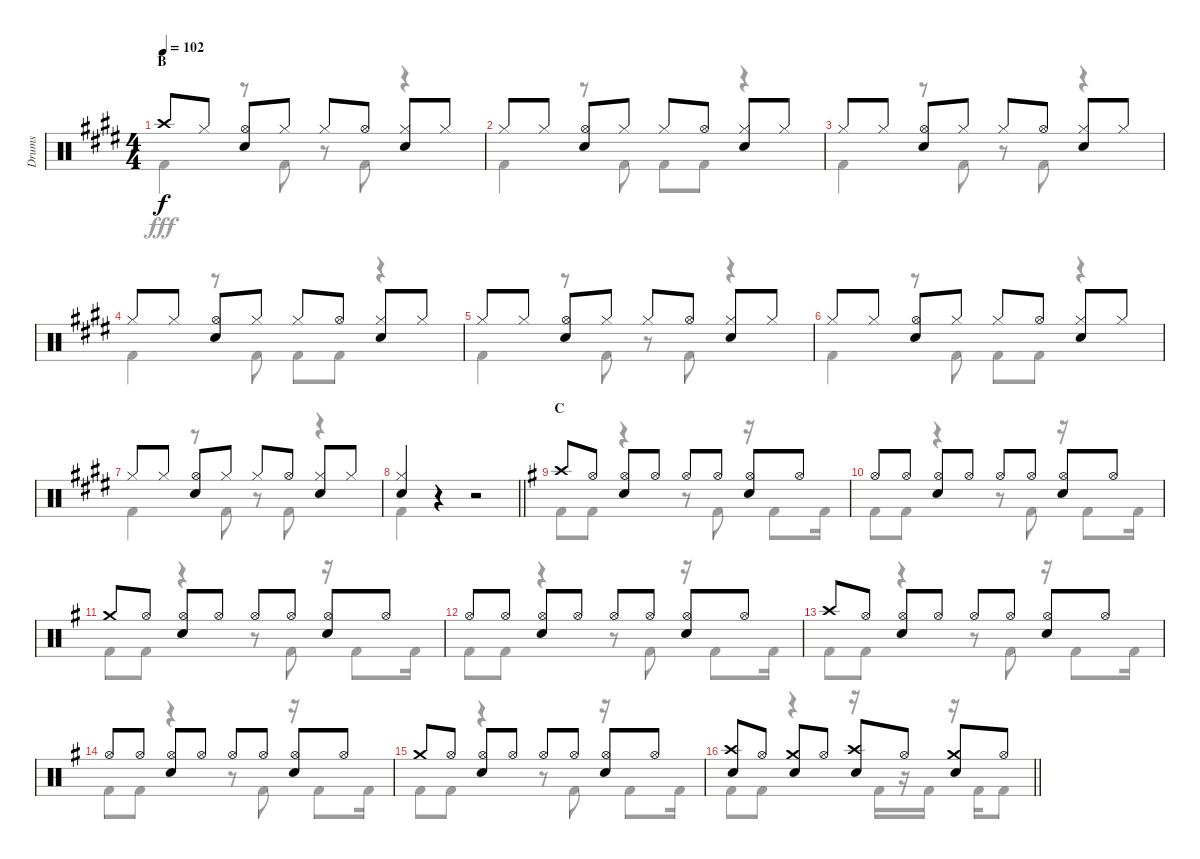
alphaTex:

\track ("Drums" "Drums") {instrument percussion}
\staff {score}
\articulation defaults
\voice
\ts (4 4)
\section ("" "B")
\tempo 102
\clef neutral
\ks e "Crash high (hit)".8{dy f} "Hi-Hat (closed)".8
("Hi-Hat (open)" "Snare (hit) 2").8 "Hi-Hat (closed)".8 "Hi-Hat (closed)".8 "Hi-Hat (open)".8 ("Hi-Hat (closed)" "Snare (hit) 2").8 "Hi-Hat (closed)".8 |
"Hi-Hat (closed)".8 "Hi-Hat (closed)".8 ("Hi-Hat (open)" "Snare (hit) 2").8 "Hi-Hat (closed)".8 "Hi-Hat (closed)".8 "Hi-Hat (open)".8 ("Hi-Hat (closed)" "Snare (hit) 2").8 "Hi-Hat (closed)".8 |
"Hi-Hat (closed)".8 "Hi-Hat (closed)".8 ("Hi-Hat (open)" "Snare (hit) 2").8 "Hi-Hat (closed)".8 "Hi-Hat (closed)".8 "Hi-Hat (open)".8 ("Hi-Hat (closed)" "Snare (hit) 2").8 "Hi-Hat (closed)".8 |
"Hi-Hat (closed)".8 "Hi-Hat (closed)".8 ("Hi-Hat (open)" "Snare (hit) 2").8 "Hi-Hat (closed)".8 "Hi-Hat (closed)".8 "Hi-Hat (open)".8 ("Hi-Hat (closed)" "Snare (hit) 2").8 "Hi-Hat (closed)".8 |
"Hi-Hat (closed)".8 "Hi-Hat (closed)".8 ("Hi-Hat (open)" "Snare (hit) 2").8 "Hi-Hat (closed)".8 "Hi-Hat (closed)".8 "Hi-Hat (open)".8 ("Hi-Hat (closed)" "Snare (hit) 2").8 "Hi-Hat (closed)".8 |
"Hi-Hat (closed)".8 "Hi-Hat (closed)".8 ("Hi-Hat (open)" "Snare (hit) 2").8 "Hi-Hat (closed)".8 "Hi-Hat (closed)".8 "Hi-Hat (open)".8 ("Hi-Hat (closed)" "Snare (hit) 2").8 "Hi-Hat (closed)".8 |
"Hi-Hat (closed)".8 "Hi-Hat (closed)".8 ("Hi-Hat (open)" "Snare (hit) 2").8 "Hi-Hat (closed)".8 "Hi-Hat (closed)".8 "Hi-Hat (open)".8 ("Hi-Hat (closed)" "Snare (hit) 2").8 "Hi-Hat (closed)".8 |
\barLineRight lightlight
("Hi-Hat (closed)" "Snare (hit) 2").4 r.4 r.2 |
\section ("" "C")
\ks g "Crash high (hit)".8 "Hi-Hat (open)".8
("Hi-Hat (open)" "Snare (hit) 2").8 "Hi-Hat (open)".8 "Hi-Hat (open)".8 "Hi-Hat (open)".8 ("Hi-Hat (open)" "Snare (hit) 2").8 "Hi-Hat (open)".8 |
"Hi-Hat (open)".8 "Hi-Hat (open)".8 ("Hi-Hat (open)" "Snare (hit) 2").8 "Hi-Hat (open)".8 "Hi-Hat (open)".8 "Hi-Hat (open)".8 ("Hi-Hat (open)" "Snare (hit) 2").8 "Hi-Hat (open)".8 |
"Crash medium (hit)".8 "Hi-Hat (open)".8 ("Hi-Hat (open)" "Snare (hit) 2").8 "Hi-Hat (open)".8 "Hi-Hat (open)".8 "Hi-Hat (open)".8 ("Hi-Hat (open)" "Snare (hit) 2").8 "Hi-Hat (open)".8 |
"Hi-Hat (open)".8 "Hi-Hat (open)".8 ("Hi-Hat (open)" "Snare (hit) 2").8 "Hi-Hat (open)".8 "Hi-Hat (open)".8 "Hi-Hat (open)".8 ("Hi-Hat (open)" "Snare (hit) 2").8 "Hi-Hat (open)".8 |
"Crash high (hit)".8 "Hi-Hat (open)".8 ("Hi-Hat (open)" "Snare (hit) 2").8 "Hi-Hat (open)".8 "Hi-Hat (open)".8 "Hi-Hat (open)".8 ("Hi-Hat (open)" "Snare (hit) 2").8 "Hi-Hat (open)".8 |
"Hi-Hat (open)".8 "Hi-Hat (open)".8 ("Hi-Hat (open)" "Snare (hit) 2").8 "Hi-Hat (open)".8 "Hi-Hat (open)".8 "Hi-Hat (open)".8 ("Hi-Hat (open)" "Snare (hit) 2").8 "Hi-Hat (open)".8 |
"Crash medium (hit)".8 "Hi-Hat (open)".8 ("Hi-Hat (open)" "Snare (hit) 2").8 "Hi-Hat (open)".8 "Hi-Hat (open)".8 "Hi-Hat (open)".8 ("Hi-Hat (open)" "Snare (hit) 2").8 "Hi-Hat (open)".8 |
\barLineRight lightlight
("Crash high (hit)" "Snare (hit) 2").8 "Hi-Hat (open)".8 ("Crash medium (hit)" "Snare (hit) 2").8 "Hi-Hat (open)".8 ("Crash high (hit)" "Snare (hit) 2").8 "Hi-Hat (open)".8 ("Crash medium (hit)" "Snare (hit) 2").8 "Hi-Hat (open)".8
\voice
\clef neutral
\ottava regular
\simile none
\ks e "Kick (hit) 2".4{dy fff}
r.8 "Kick (hit) 2".8 r.8 "Kick (hit) 2".8 r.4 |
"Kick (hit) 2".4 r.8 "Kick (hit) 2".8 "Kick (hit) 2".8 "Kick (hit) 2".8 r.4 |
"Kick (hit) 2".4 r.8 "Kick (hit) 2".8 r.8 "Kick (hit) 2".8 r.4 |
"Kick (hit) 2".4 r.8 "Kick (hit) 2".8 "Kick (hit) 2".8 "Kick (hit) 2".8 r.4 |
"Kick (hit) 2".4 r.8 "Kick (hit) 2".8 r.8 "Kick (hit) 2".8 r.4 |
"Kick (hit) 2".4 r.8 "Kick (hit) 2".8 "Kick (hit) 2".8 "Kick (hit) 2".8 r.4 |
"Kick (hit) 2".4 r.8 "Kick (hit) 2".8 r.8 "Kick (hit) 2".8 r.4 |
\barLineRight lightlight "Kick (hit) 2".4
r.4 r.2 |
\ks g "Kick (hit) 2".8 "Kick (hit) 2".8
r.4 r.8 "Kick (hit) 2".8 r.16 "Kick (hit) 2".8 "Kick (hit) 2".16 |
"Kick (hit) 2".8 "Kick (hit) 2".8 r.4 r.8 "Kick (hit) 2".8 r.16 "Kick (hit) 2".8 "Kick (hit) 2".16 |
"Kick (hit) 2".8 "Kick (hit) 2".8 r.4 r.8 "Kick (hit) 2".8 r.16 "Kick (hit) 2".8 "Kick (hit) 2".16 |
"Kick (hit) 2".8 "Kick (hit) 2".8 r.4 r.8 "Kick (hit) 2".8 r.16 "Kick (hit) 2".8 "Kick (hit) 2".16 |
"Kick (hit) 2".8 "Kick (hit) 2".8 r.4 r.8 "Kick (hit) 2".8 r.16 "Kick (hit) 2".8 "Kick (hit) 2".16 |
"Kick (hit) 2".8 "Kick (hit) 2".8 r.4 r.8 "Kick (hit) 2".8 r.16 "Kick (hit) 2".8 "Kick (hit) 2".16 |
"Kick (hit) 2".8 "Kick (hit) 2".8 r.4 r.8 "Kick (hit) 2".8 r.16 "Kick (hit) 2".8 "Kick (hit) 2".16 |
\barLineRight lightlight "Kick (hit) 2".8 "Kick (hit) 2".8
r.4 r.16 "Kick (hit) 2".16 r.16 "Kick (hit) 2".16 r.16 "Kick (hit) 2".16 "Kick (hit) 2".8
